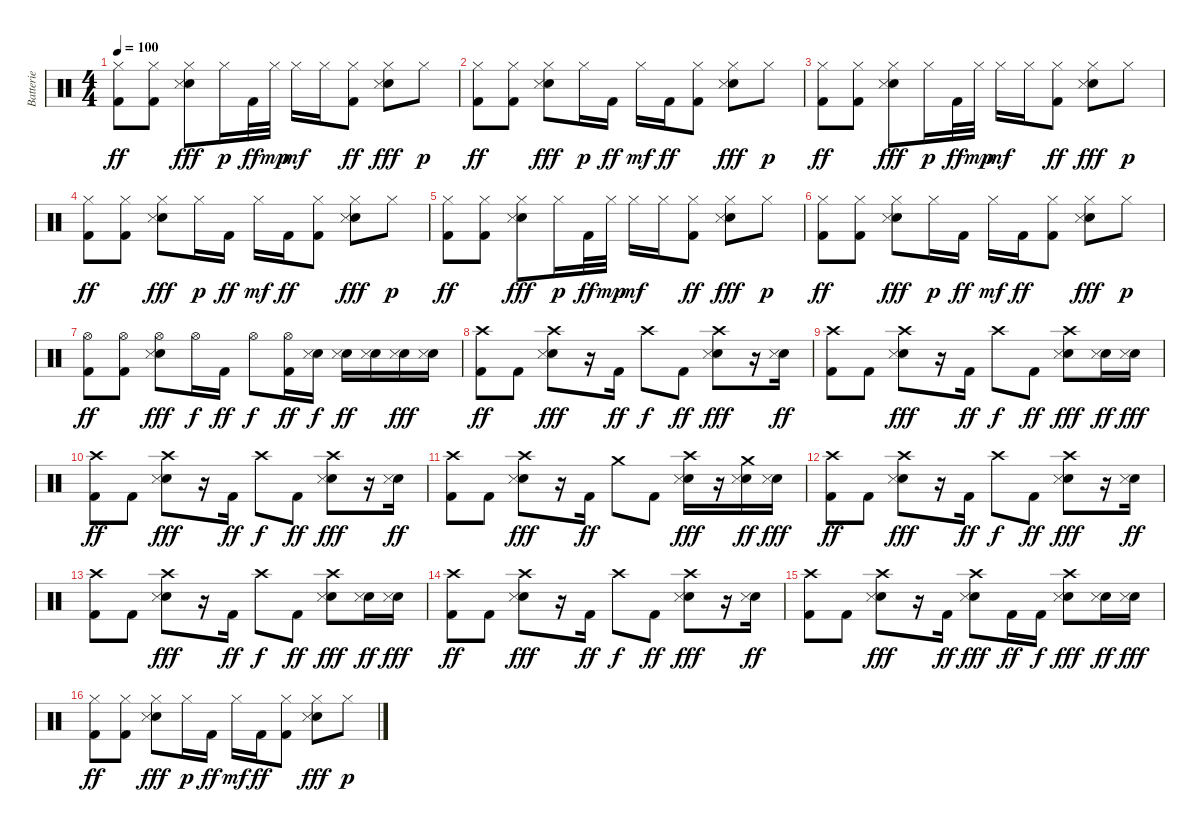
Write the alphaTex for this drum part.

\track ("Batterie" "Batterie") {instrument percussion}
\staff {score}
\articulation defaults
\ts (4 4)
\tempo 100
\clef neutral
\ks c
("Hi-Hat (closed)" "Kick (hit) 2").8{dy ff} ("Hi-Hat (closed)" "Kick (hit) 2").8 ("Hi-Hat (closed)" "Snare (hit) 2" "Snare (side stick) 3").8{dy fff} "Hi-Hat (closed)".16{dy p} "Kick (hit) 2".32{dy ff} "Hi-Hat (closed)".32{dy mp} "Hi-Hat (closed)".16{dy mf} "Hi-Hat (closed)".16 ("Hi-Hat (closed)" "Kick (hit) 2").8{dy ff} ("Hi-Hat (closed)" "Snare (hit) 2" "Snare (side stick) 3").8{dy fff} "Hi-Hat (closed)".8{dy p} |
("Hi-Hat (closed)" "Kick (hit) 2").8{dy ff} ("Hi-Hat (closed)" "Kick (hit) 2").8 ("Hi-Hat (closed)" "Snare (hit) 2" "Snare (side stick) 3").8{dy fff} "Hi-Hat (closed)".16{dy p} "Kick (hit) 2".16{dy ff} "Hi-Hat (closed)".16{dy mf} "Kick (hit) 2".16{dy ff} ("Hi-Hat (closed)" "Kick (hit) 2").8 ("Hi-Hat (closed)" "Snare (hit) 2" "Snare (side stick) 3").8{dy fff} "Hi-Hat (closed)".8{dy p} |
("Hi-Hat (closed)" "Kick (hit) 2").8{dy ff} ("Hi-Hat (closed)" "Kick (hit) 2").8 ("Hi-Hat (closed)" "Snare (hit) 2" "Snare (side stick) 3").8{dy fff} "Hi-Hat (closed)".16{dy p} "Kick (hit) 2".32{dy ff} "Hi-Hat (closed)".32{dy mp} "Hi-Hat (closed)".16{dy mf} "Hi-Hat (closed)".16 ("Hi-Hat (closed)" "Kick (hit) 2").8{dy ff} ("Hi-Hat (closed)" "Snare (hit) 2" "Snare (side stick) 3").8{dy fff} "Hi-Hat (closed)".8{dy p} |
("Hi-Hat (closed)" "Kick (hit) 2").8{dy ff} ("Hi-Hat (closed)" "Kick (hit) 2").8 ("Hi-Hat (closed)" "Snare (hit) 2" "Snare (side stick) 3").8{dy fff} "Hi-Hat (closed)".16{dy p} "Kick (hit) 2".16{dy ff} "Hi-Hat (closed)".16{dy mf} "Kick (hit) 2".16{dy ff} ("Hi-Hat (closed)" "Kick (hit) 2").8 ("Hi-Hat (closed)" "Snare (hit) 2" "Snare (side stick) 3").8{dy fff} "Hi-Hat (closed)".8{dy p} |
("Hi-Hat (closed)" "Kick (hit) 2").8{dy ff} ("Hi-Hat (closed)" "Kick (hit) 2").8 ("Hi-Hat (closed)" "Snare (hit) 2" "Snare (side stick) 3").8{dy fff} "Hi-Hat (closed)".16{dy p} "Kick (hit) 2".32{dy ff} "Hi-Hat (closed)".32{dy mp} "Hi-Hat (closed)".16{dy mf} "Hi-Hat (closed)".16 ("Hi-Hat (closed)" "Kick (hit) 2").8{dy ff} ("Hi-Hat (closed)" "Snare (hit) 2" "Snare (side stick) 3").8{dy fff} "Hi-Hat (closed)".8{dy p} |
("Hi-Hat (closed)" "Kick (hit) 2").8{dy ff} ("Hi-Hat (closed)" "Kick (hit) 2").8 ("Hi-Hat (closed)" "Snare (hit) 2" "Snare (side stick) 3").8{dy fff} "Hi-Hat (closed)".16{dy p} "Kick (hit) 2".16{dy ff} "Hi-Hat (closed)".16{dy mf} "Kick (hit) 2".16{dy ff} ("Hi-Hat (closed)" "Kick (hit) 2").8 ("Hi-Hat (closed)" "Snare (hit) 2" "Snare (side stick) 3").8{dy fff} "Hi-Hat (closed)".8{dy p} |
("Hi-Hat (open)" "Kick (hit) 2").8{dy ff} ("Hi-Hat (open)" "Kick (hit) 2").8 ("Hi-Hat (open)" "Snare (hit) 2" "Snare (side stick) 3").8{dy fff} "Hi-Hat (open)".16{dy f} "Kick (hit) 2".16{dy ff} "Hi-Hat (open)".8{dy f} ("Hi-Hat (open)" "Kick (hit) 2").16{dy ff} ("Snare (hit) 2" "Snare (side stick) 3").16{dy f} ("Snare (hit) 2" "Snare (side stick) 3").16{dy ff} ("Snare (hit) 2" "Snare (side stick) 3").16 ("Snare (hit) 2" "Snare (side stick) 3").16{dy fff} ("Snare (hit) 2" "Snare (side stick) 3").16 |
("Crash high (hit)" "Kick (hit) 2").8{dy ff} "Kick (hit) 2".8 ("Crash high (hit)" "Snare (hit) 2" "Snare (side stick) 3").8{dy fff} r.16 "Kick (hit) 2".16{dy ff} "Crash high (hit)".8{dy f} "Kick (hit) 2".8{dy ff} ("Crash high (hit)" "Snare (hit) 2" "Snare (side stick) 3").8{dy fff} r.16 ("Snare (hit) 2" "Snare (side stick) 3").16{dy ff} |
("Crash high (hit)" "Kick (hit) 2").8 "Kick (hit) 2".8 ("Crash high (hit)" "Snare (hit) 2" "Snare (side stick) 3").8{dy fff} r.16 "Kick (hit) 2".16{dy ff} "Crash high (hit)".8{dy f} "Kick (hit) 2".8{dy ff} ("Crash high (hit)" "Snare (hit) 2" "Snare (side stick) 3").8{dy fff} ("Snare (hit) 2" "Snare (side stick) 3").16{dy ff} ("Snare (hit) 2" "Snare (side stick) 3").16{dy fff} |
("Crash high (hit)" "Kick (hit) 2").8{dy ff} "Kick (hit) 2".8 ("Crash high (hit)" "Snare (hit) 2" "Snare (side stick) 3").8{dy fff} r.16 "Kick (hit) 2".16{dy ff} "Crash high (hit)".8{dy f} "Kick (hit) 2".8{dy ff} ("Crash high (hit)" "Snare (hit) 2" "Snare (side stick) 3").8{dy fff} r.16 ("Snare (hit) 2" "Snare (side stick) 3").16{dy ff} |
("Crash high (hit)" "Kick (hit) 2").8 "Kick (hit) 2".8 ("Crash high (hit)" "Snare (hit) 2" "Snare (side stick) 3").8{dy fff} r.16 "Kick (hit) 2".16{dy ff} "Crash medium (hit)".8 "Kick (hit) 2".8 ("Crash high (hit)" "Snare (hit) 2" "Snare (side stick) 3").16{dy fff} r.16 ("Crash medium (hit)" "Snare (hit) 2" "Snare (side stick) 3").16{dy ff} ("Snare (hit) 2" "Snare (side stick) 3").16{dy fff} |
("Crash high (hit)" "Kick (hit) 2").8{dy ff} "Kick (hit) 2".8 ("Crash high (hit)" "Snare (hit) 2" "Snare (side stick) 3").8{dy fff} r.16 "Kick (hit) 2".16{dy ff} "Crash high (hit)".8{dy f} "Kick (hit) 2".8{dy ff} ("Crash high (hit)" "Snare (hit) 2" "Snare (side stick) 3").8{dy fff} r.16 ("Snare (hit) 2" "Snare (side stick) 3").16{dy ff} |
("Crash high (hit)" "Kick (hit) 2").8 "Kick (hit) 2".8 ("Crash high (hit)" "Snare (hit) 2" "Snare (side stick) 3").8{dy fff} r.16 "Kick (hit) 2".16{dy ff} "Crash high (hit)".8{dy f} "Kick (hit) 2".8{dy ff} ("Crash high (hit)" "Snare (hit) 2" "Snare (side stick) 3").8{dy fff} ("Snare (hit) 2" "Snare (side stick) 3").16{dy ff} ("Snare (hit) 2" "Snare (side stick) 3").16{dy fff} |
("Crash high (hit)" "Kick (hit) 2").8{dy ff} "Kick (hit) 2".8 ("Crash high (hit)" "Snare (hit) 2" "Snare (side stick) 3").8{dy fff} r.16 "Kick (hit) 2".16{dy ff} "Crash high (hit)".8{dy f} "Kick (hit) 2".8{dy ff} ("Crash high (hit)" "Snare (hit) 2" "Snare (side stick) 3").8{dy fff} r.16 ("Snare (hit) 2" "Snare (side stick) 3").16{dy ff} |
("Crash high (hit)" "Kick (hit) 2").8 "Kick (hit) 2".8 ("Crash high (hit)" "Snare (hit) 2" "Snare (side stick) 3").8{dy fff} r.16 "Kick (hit) 2".16{dy ff} ("Crash high (hit)" "Snare (hit) 2" "Snare (side stick) 3").8{dy fff} "Kick (hit) 2".16{dy ff} "Kick (hit) 2".16{dy f} ("Crash high (hit)" "Snare (hit) 2" "Snare (side stick) 3").8{dy fff} ("Snare (hit) 2" "Snare (side stick) 3").16{dy ff} ("Snare (hit) 2" "Snare (side stick) 3").16{dy fff} |
("Hi-Hat (closed)" "Kick (hit) 2").8{dy ff} ("Hi-Hat (closed)" "Kick (hit) 2").8 ("Hi-Hat (closed)" "Snare (hit) 2" "Snare (side stick) 3").8{dy fff} "Hi-Hat (closed)".16{dy p} "Kick (hit) 2".16{dy ff} "Hi-Hat (closed)".16{dy mf} "Kick (hit) 2".16{dy ff} ("Hi-Hat (closed)" "Kick (hit) 2").8 ("Hi-Hat (closed)" "Snare (hit) 2" "Snare (side stick) 3").8{dy fff} "Hi-Hat (closed)".8{dy p}
